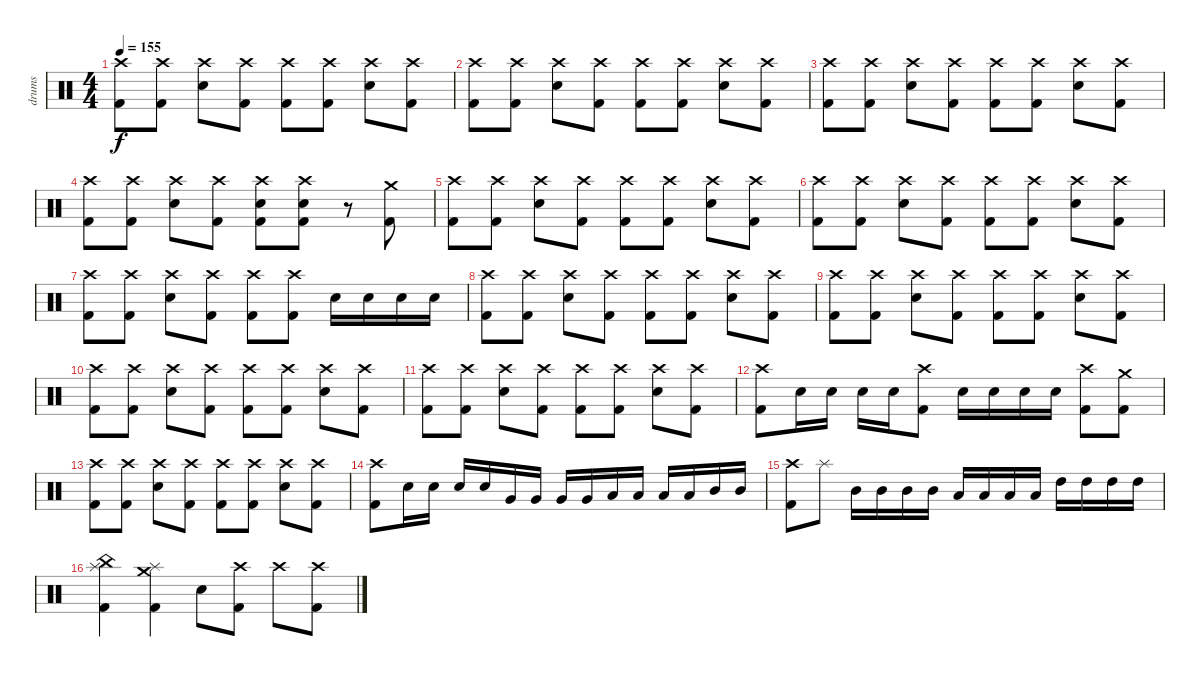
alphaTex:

\track ("drums" "drums") {instrument percussion}
\staff {score}
\articulation defaults
\ts (4 4)
\tempo 155
\clef neutral
\ks c
("Crash high (hit)" "Kick (hit) 2").8{dy f} ("Crash high (hit)" "Kick (hit) 2").8 ("Crash high (hit)" "Snare (hit) 2").8 ("Crash high (hit)" "Kick (hit) 2").8 ("Crash high (hit)" "Kick (hit) 2").8 ("Crash high (hit)" "Kick (hit) 2").8 ("Crash high (hit)" "Snare (hit) 2").8 ("Crash high (hit)" "Kick (hit) 2").8 |
("Crash high (hit)" "Kick (hit) 2").8 ("Crash high (hit)" "Kick (hit) 2").8 ("Crash high (hit)" "Snare (hit) 2").8 ("Crash high (hit)" "Kick (hit) 2").8 ("Crash high (hit)" "Kick (hit) 2").8 ("Crash high (hit)" "Kick (hit) 2").8 ("Crash high (hit)" "Snare (hit) 2").8 ("Crash high (hit)" "Kick (hit) 2").8 |
("Crash high (hit)" "Kick (hit) 2").8 ("Crash high (hit)" "Kick (hit) 2").8 ("Crash high (hit)" "Snare (hit) 2").8 ("Crash high (hit)" "Kick (hit) 2").8 ("Crash high (hit)" "Kick (hit) 2").8 ("Crash high (hit)" "Kick (hit) 2").8 ("Crash high (hit)" "Snare (hit) 2").8 ("Crash high (hit)" "Kick (hit) 2").8 |
("Crash high (hit)" "Kick (hit) 2").8 ("Crash high (hit)" "Kick (hit) 2").8 ("Crash high (hit)" "Snare (hit) 2").8 ("Crash high (hit)" "Kick (hit) 2").8 ("Crash high (hit)" "Snare (hit) 2" "Kick (hit) 2").8 ("Crash high (hit)" "Snare (hit) 2" "Kick (hit) 2").8 r.8 ("Crash medium (hit)" "Kick (hit) 2").8 |
("Crash high (hit)" "Kick (hit) 2").8 ("Crash high (hit)" "Kick (hit) 2").8 ("Crash high (hit)" "Snare (hit) 2").8 ("Crash high (hit)" "Kick (hit) 2").8 ("Crash high (hit)" "Kick (hit) 2").8 ("Crash high (hit)" "Kick (hit) 2").8 ("Crash high (hit)" "Snare (hit) 2").8 ("Crash high (hit)" "Kick (hit) 2").8 |
("Crash high (hit)" "Kick (hit) 2").8 ("Crash high (hit)" "Kick (hit) 2").8 ("Crash high (hit)" "Snare (hit) 2").8 ("Crash high (hit)" "Kick (hit) 2").8 ("Crash high (hit)" "Kick (hit) 2").8 ("Crash high (hit)" "Kick (hit) 2").8 ("Crash high (hit)" "Snare (hit) 2").8 ("Crash high (hit)" "Kick (hit) 2").8 |
("Crash high (hit)" "Kick (hit) 2").8 ("Crash high (hit)" "Kick (hit) 2").8 ("Crash high (hit)" "Snare (hit) 2").8 ("Crash high (hit)" "Kick (hit) 2").8 ("Crash high (hit)" "Kick (hit) 2").8 ("Crash high (hit)" "Kick (hit) 2").8 "Snare (hit) 2".16 "Snare (hit) 2".16 "Snare (hit) 2".16 "Snare (hit) 2".16 |
("Crash high (hit)" "Kick (hit) 2").8 ("Crash high (hit)" "Kick (hit) 2").8 ("Crash high (hit)" "Snare (hit) 2").8 ("Crash high (hit)" "Kick (hit) 2").8 ("Crash high (hit)" "Kick (hit) 2").8 ("Crash high (hit)" "Kick (hit) 2").8 ("Crash high (hit)" "Snare (hit) 2").8 ("Crash high (hit)" "Kick (hit) 2").8 |
("Crash high (hit)" "Kick (hit) 2").8 ("Crash high (hit)" "Kick (hit) 2").8 ("Crash high (hit)" "Snare (hit) 2").8 ("Crash high (hit)" "Kick (hit) 2").8 ("Crash high (hit)" "Kick (hit) 2").8 ("Crash high (hit)" "Kick (hit) 2").8 ("Crash high (hit)" "Snare (hit) 2").8 ("Crash high (hit)" "Kick (hit) 2").8 |
("Crash high (hit)" "Kick (hit) 2").8 ("Crash high (hit)" "Kick (hit) 2").8 ("Crash high (hit)" "Snare (hit) 2").8 ("Crash high (hit)" "Kick (hit) 2").8 ("Crash high (hit)" "Kick (hit) 2").8 ("Crash high (hit)" "Kick (hit) 2").8 ("Crash high (hit)" "Snare (hit) 2").8 ("Crash high (hit)" "Kick (hit) 2").8 |
("Crash high (hit)" "Kick (hit) 2").8 ("Crash high (hit)" "Kick (hit) 2").8 ("Crash high (hit)" "Snare (hit) 2").8 ("Crash high (hit)" "Kick (hit) 2").8 ("Crash high (hit)" "Kick (hit) 2").8 ("Crash high (hit)" "Kick (hit) 2").8 ("Crash high (hit)" "Snare (hit) 2").8 ("Crash high (hit)" "Kick (hit) 2").8 |
("Crash high (hit)" "Kick (hit) 2").8 "Snare (hit) 2".16 "Snare (hit) 2".16 "Snare (hit) 2".16 "Snare (hit) 2".16 ("Crash high (hit)" "Kick (hit) 2").8 "Snare (hit) 2".16 "Snare (hit) 2".16 "Snare (hit) 2".16 "Snare (hit) 2".16 ("Crash high (hit)" "Kick (hit) 2").8 ("Crash medium (hit)" "Kick (hit) 2").8 |
("Crash high (hit)" "Kick (hit) 2").8 ("Crash high (hit)" "Kick (hit) 2").8 ("Crash high (hit)" "Snare (hit) 2").8 ("Crash high (hit)" "Kick (hit) 2").8 ("Crash high (hit)" "Kick (hit) 2").8 ("Crash high (hit)" "Kick (hit) 2").8 ("Crash high (hit)" "Snare (hit) 2").8 ("Crash high (hit)" "Kick (hit) 2").8 |
("Crash high (hit)" "Kick (hit) 2").8 "Snare (hit) 2".16 "Snare (hit) 2".16 "Snare (hit) 2".16 "Snare (hit) 2".16 "Very Low Tom (hit)".16 "Very Low Tom (hit)".16 "Very Low Tom (hit)".16 "Very Low Tom (hit)".16 "Low Tom (hit)".16 "Low Tom (hit)".16 "Low Tom (hit)".16 "Low Tom (hit)".16 "Mid Tom (hit)".16 "Mid Tom (hit)".16 |
("Crash high (hit)" "Kick (hit) 2").8 "Splash (hit)".8 "Mid Tom (hit)".16 "Mid Tom (hit)".16 "Mid Tom (hit)".16 "Mid Tom (hit)".16 "Low Tom (hit)".16 "Low Tom (hit)".16 "Low Tom (hit)".16 "Low Tom (hit)".16 "High Tom (hit)".16 "High Tom (hit)".16 "High Tom (hit)".16 "High Tom (hit)".16 |
("Splash (hit)" "China (hit)" "Kick (hit) 2").4 ("Splash (hit)" "Crash medium (hit)" "Kick (hit) 2").4 "Snare (hit) 2".8 ("Crash high (hit)" "Kick (hit) 2").8 "Crash high (hit)".8 ("Crash high (hit)" "Kick (hit) 2").8
